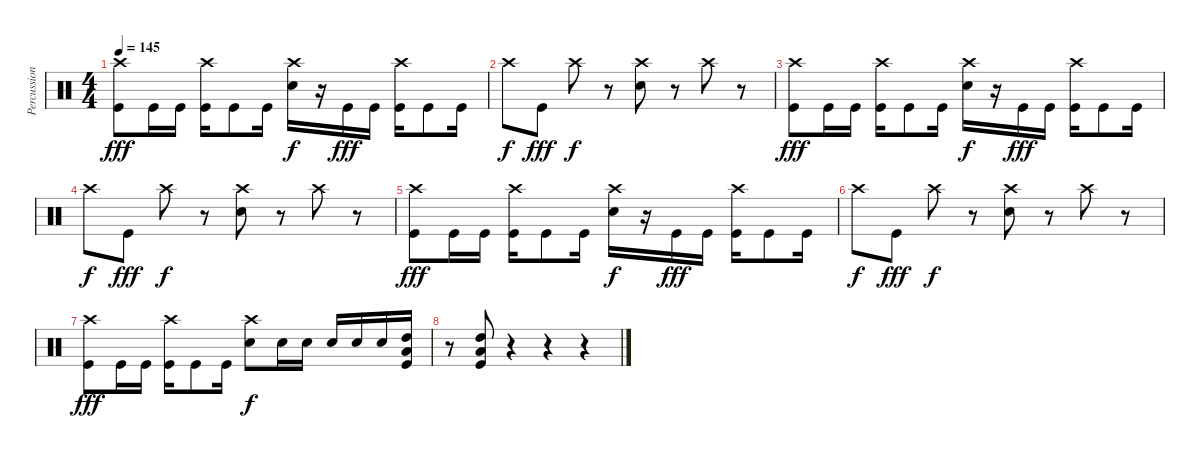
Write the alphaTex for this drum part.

\track ("Percussion" "Percussion") {instrument percussion}
\staff {score}
\articulation defaults
\ts (4 4)
\tempo 145
\clef neutral
\ks c
("Crash high (hit)" "Kick (hit)").8{dy fff} "Kick (hit)".16 "Kick (hit)".16 ("Crash high (hit)" "Kick (hit)").16 "Kick (hit)".8 "Kick (hit)".16 ("Crash high (hit)" "Electric Snare (hit)").16{dy f} r.16 "Kick (hit)".16{dy fff} "Kick (hit)".16 ("Crash high (hit)" "Kick (hit)").16 "Kick (hit)".8 "Kick (hit)".16 |
"Crash high (hit)".8{dy f} "Kick (hit)".8{dy fff} "Crash high (hit)".8{dy f} r.8 ("Crash high (hit)" "Electric Snare (hit)").8 r.8 "Crash high (hit)".8 r.8 |
("Crash high (hit)" "Kick (hit)").8{dy fff} "Kick (hit)".16 "Kick (hit)".16 ("Crash high (hit)" "Kick (hit)").16 "Kick (hit)".8 "Kick (hit)".16 ("Crash high (hit)" "Electric Snare (hit)").16{dy f} r.16 "Kick (hit)".16{dy fff} "Kick (hit)".16 ("Crash high (hit)" "Kick (hit)").16 "Kick (hit)".8 "Kick (hit)".16 |
"Crash high (hit)".8{dy f} "Kick (hit)".8{dy fff} "Crash high (hit)".8{dy f} r.8 ("Crash high (hit)" "Electric Snare (hit)").8 r.8 "Crash high (hit)".8 r.8 |
("Crash high (hit)" "Kick (hit)").8{dy fff} "Kick (hit)".16 "Kick (hit)".16 ("Crash high (hit)" "Kick (hit)").16 "Kick (hit)".8 "Kick (hit)".16 ("Crash high (hit)" "Electric Snare (hit)").16{dy f} r.16 "Kick (hit)".16{dy fff} "Kick (hit)".16 ("Crash high (hit)" "Kick (hit)").16 "Kick (hit)".8 "Kick (hit)".16 |
"Crash high (hit)".8{dy f} "Kick (hit)".8{dy fff} "Crash high (hit)".8{dy f} r.8 ("Crash high (hit)" "Electric Snare (hit)").8 r.8 "Crash high (hit)".8 r.8 |
("Crash high (hit)" "Kick (hit)").8{dy fff} "Kick (hit)".16 "Kick (hit)".16 ("Crash high (hit)" "Kick (hit)").16 "Kick (hit)".8 "Kick (hit)".16 ("Crash high (hit)" "Electric Snare (hit)").8{dy f} "Electric Snare (hit)".16 "Electric Snare (hit)".16 "Electric Snare (hit)".16 "Electric Snare (hit)".16 "Electric Snare (hit)".16 ("High Tom (hit)" "Low Floor Tom (hit)" "Kick (hit)").16 |
r.8 ("High Tom (hit)" "Low Floor Tom (hit)" "Kick (hit)").8 r.4 r.4 r.4
